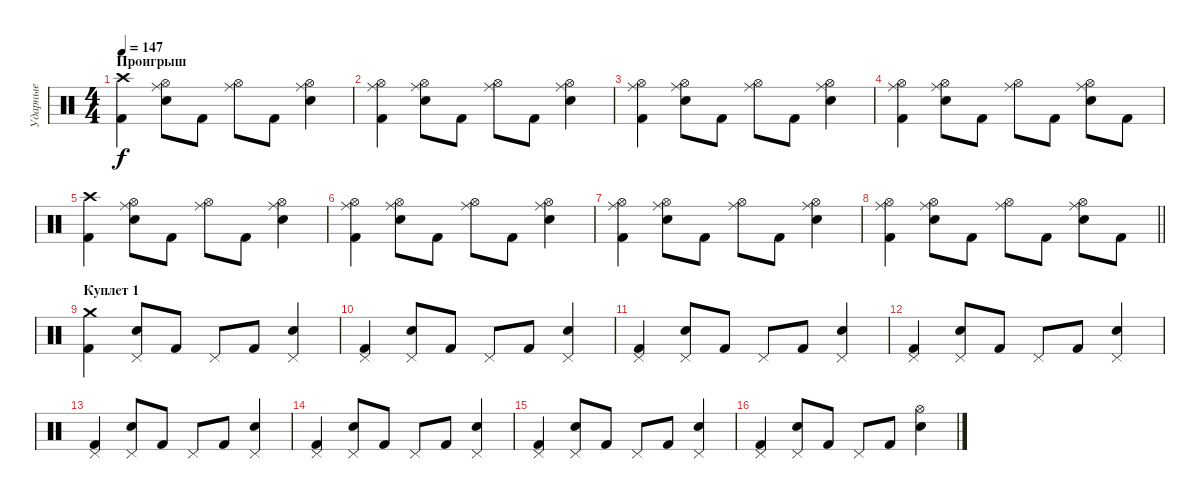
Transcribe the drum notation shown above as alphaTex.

\track ("Ударные" "Ударные") {instrument percussion}
\staff {score}
\articulation defaults
\ts (4 4)
\section ("" "Проигрыш")
\tempo 147
\clef neutral
\ks c
("Crash high (hit)" "Kick (hit) 2").4{dy f} ("Ride (middle)" "Hi-Hat (open)" "Snare (hit) 2").8 "Kick (hit) 2".8 ("Ride (middle)" "Hi-Hat (open)").8 "Kick (hit) 2".8 ("Ride (middle)" "Hi-Hat (open)" "Snare (hit) 2").4 |
("Ride (middle)" "Hi-Hat (open)" "Kick (hit) 2").4 ("Ride (middle)" "Hi-Hat (open)" "Snare (hit) 2").8 "Kick (hit) 2".8 ("Ride (middle)" "Hi-Hat (open)").8 "Kick (hit) 2".8 ("Ride (middle)" "Hi-Hat (open)" "Snare (hit) 2").4 |
("Ride (middle)" "Hi-Hat (open)" "Kick (hit) 2").4 ("Ride (middle)" "Hi-Hat (open)" "Snare (hit) 2").8 "Kick (hit) 2".8 ("Ride (middle)" "Hi-Hat (open)").8 "Kick (hit) 2".8 ("Ride (middle)" "Hi-Hat (open)" "Snare (hit) 2").4 |
("Ride (middle)" "Hi-Hat (open)" "Kick (hit) 2").4 ("Ride (middle)" "Hi-Hat (open)" "Snare (hit) 2").8 "Kick (hit) 2".8 ("Ride (middle)" "Hi-Hat (open)").8 "Kick (hit) 2".8 ("Ride (middle)" "Hi-Hat (open)" "Snare (hit) 2").8 "Kick (hit) 2".8 |
("Crash high (hit)" "Kick (hit) 2").4 ("Ride (middle)" "Hi-Hat (open)" "Snare (hit) 2").8 "Kick (hit) 2".8 ("Ride (middle)" "Hi-Hat (open)").8 "Kick (hit) 2".8 ("Ride (middle)" "Hi-Hat (open)" "Snare (hit) 2").4 |
("Ride (middle)" "Hi-Hat (open)" "Kick (hit) 2").4 ("Ride (middle)" "Hi-Hat (open)" "Snare (hit) 2").8 "Kick (hit) 2".8 ("Ride (middle)" "Hi-Hat (open)").8 "Kick (hit) 2".8 ("Ride (middle)" "Hi-Hat (open)" "Snare (hit) 2").4 |
("Ride (middle)" "Hi-Hat (open)" "Kick (hit) 2").4 ("Ride (middle)" "Hi-Hat (open)" "Snare (hit) 2").8 "Kick (hit) 2".8 ("Ride (middle)" "Hi-Hat (open)").8 "Kick (hit) 2".8 ("Ride (middle)" "Hi-Hat (open)" "Snare (hit) 2").4 |
\barLineRight lightlight
("Ride (middle)" "Hi-Hat (open)" "Kick (hit) 2").4 ("Ride (middle)" "Hi-Hat (open)" "Snare (hit) 2").8 "Kick (hit) 2".8 ("Ride (middle)" "Hi-Hat (open)").8 "Kick (hit) 2".8 ("Ride (middle)" "Hi-Hat (open)" "Snare (hit) 2").8 "Kick (hit) 2".8 |
\section ("" "Куплет 1")
("Crash medium (hit)" "Kick (hit) 2").4 ("Pedal Hi-Hat (hit)" "Snare (hit) 2").8 "Kick (hit) 2".8 "Pedal Hi-Hat (hit)".8 "Kick (hit) 2".8 ("Pedal Hi-Hat (hit)" "Snare (hit) 2").4 |
("Pedal Hi-Hat (hit)" "Kick (hit) 2").4 ("Pedal Hi-Hat (hit)" "Snare (hit) 2").8 "Kick (hit) 2".8 "Pedal Hi-Hat (hit)".8 "Kick (hit) 2".8 ("Pedal Hi-Hat (hit)" "Snare (hit) 2").4 |
("Pedal Hi-Hat (hit)" "Kick (hit) 2").4 ("Pedal Hi-Hat (hit)" "Snare (hit) 2").8 "Kick (hit) 2".8 "Pedal Hi-Hat (hit)".8 "Kick (hit) 2".8 ("Pedal Hi-Hat (hit)" "Snare (hit) 2").4 |
("Pedal Hi-Hat (hit)" "Kick (hit) 2").4 ("Pedal Hi-Hat (hit)" "Snare (hit) 2").8 "Kick (hit) 2".8 "Pedal Hi-Hat (hit)".8 "Kick (hit) 2".8 ("Pedal Hi-Hat (hit)" "Snare (hit) 2").4 |
("Pedal Hi-Hat (hit)" "Kick (hit) 2").4 ("Pedal Hi-Hat (hit)" "Snare (hit) 2").8 "Kick (hit) 2".8 "Pedal Hi-Hat (hit)".8 "Kick (hit) 2".8 ("Pedal Hi-Hat (hit)" "Snare (hit) 2").4 |
("Pedal Hi-Hat (hit)" "Kick (hit) 2").4 ("Pedal Hi-Hat (hit)" "Snare (hit) 2").8 "Kick (hit) 2".8 "Pedal Hi-Hat (hit)".8 "Kick (hit) 2".8 ("Pedal Hi-Hat (hit)" "Snare (hit) 2").4 |
("Pedal Hi-Hat (hit)" "Kick (hit) 2").4 ("Pedal Hi-Hat (hit)" "Snare (hit) 2").8 "Kick (hit) 2".8 "Pedal Hi-Hat (hit)".8 "Kick (hit) 2".8 ("Pedal Hi-Hat (hit)" "Snare (hit) 2").4 |
("Pedal Hi-Hat (hit)" "Kick (hit) 2").4 ("Pedal Hi-Hat (hit)" "Snare (hit) 2").8 "Kick (hit) 2".8 "Pedal Hi-Hat (hit)".8 "Kick (hit) 2".8 ("Hi-Hat (open)" "Snare (hit) 2").4
